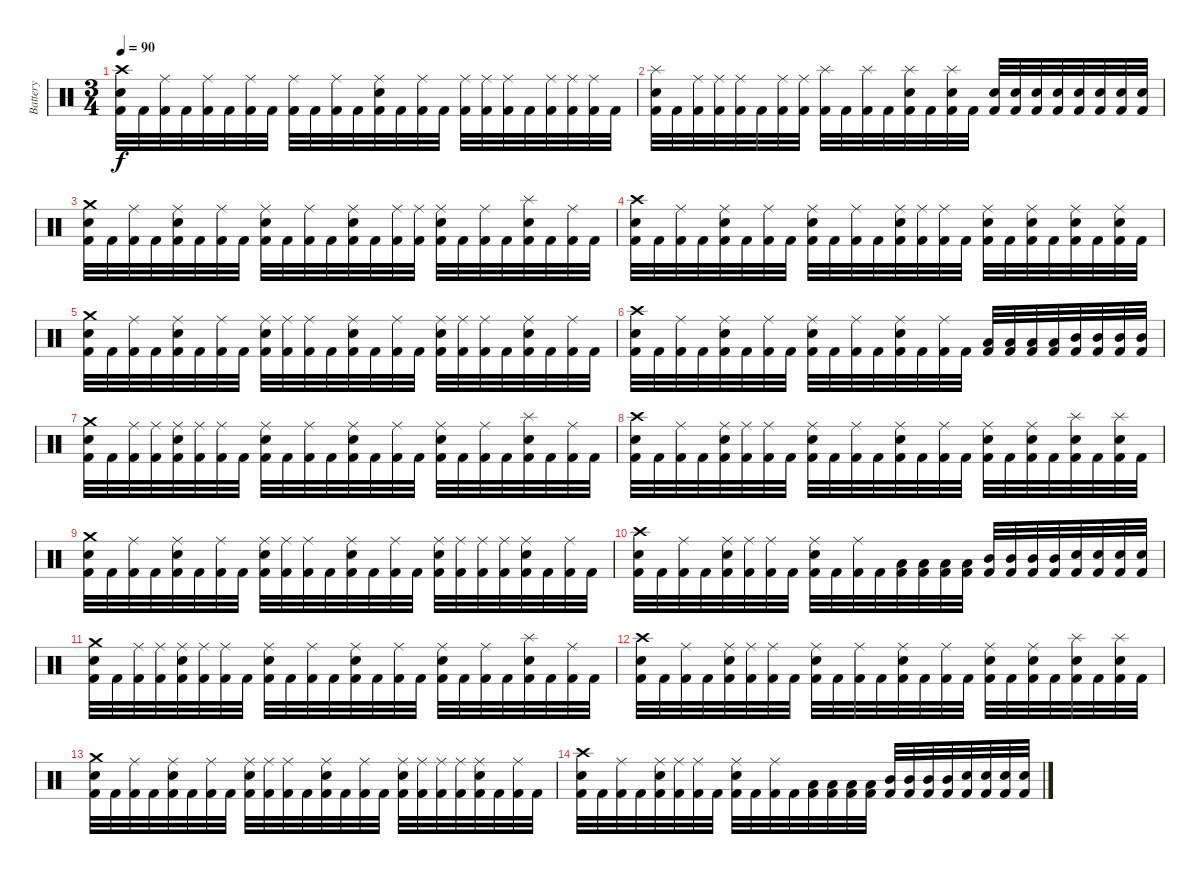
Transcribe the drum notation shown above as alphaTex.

\track ("Battery" "Battery") {instrument percussion}
\staff {score}
\articulation defaults
\ts (3 4)
\tempo 90
\clef neutral
\ks c
("Kick (hit) 2" "Snare (hit) 2" "Crash high (hit)").32{dy f} "Kick (hit) 2".32 ("Kick (hit) 2" "Ride (middle)").32 "Kick (hit) 2".32 ("Kick (hit) 2" "Ride (middle)").32 "Kick (hit) 2".32 ("Kick (hit) 2" "Ride (middle)").32 "Kick (hit) 2".32 ("Kick (hit) 2" "Ride (middle)").32 "Kick (hit) 2".32 ("Kick (hit) 2" "Ride (middle)").32 "Kick (hit) 2".32 ("Kick (hit) 2" "Snare (hit) 2" "Ride (middle)").32 "Kick (hit) 2".32 ("Kick (hit) 2" "Ride (middle)").32 "Kick (hit) 2".32 ("Kick (hit) 2" "Ride (middle)").32 ("Kick (hit) 2" "Ride (middle)").32 ("Kick (hit) 2" "Ride (middle)").32 "Kick (hit) 2".32 ("Kick (hit) 2" "Ride (middle)").32 ("Kick (hit) 2" "Ride (middle)").32 ("Kick (hit) 2" "Ride (middle)").32 "Kick (hit) 2".32 |
("Kick (hit) 2" "Snare (hit) 2" "Splash (hit)").32 "Kick (hit) 2".32 ("Kick (hit) 2" "Ride (middle)").32 ("Kick (hit) 2" "Ride (middle)").32 ("Kick (hit) 2" "Ride (middle)").32 "Kick (hit) 2".32 ("Kick (hit) 2" "Ride (middle)").32 ("Kick (hit) 2" "Ride (middle)").32 ("Kick (hit) 2" "Splash (hit)").32 "Kick (hit) 2".32 ("Kick (hit) 2" "Splash (hit)").32 "Kick (hit) 2".32 ("Kick (hit) 2" "Snare (hit) 2" "Splash (hit)").32 "Kick (hit) 2".32 ("Kick (hit) 2" "Snare (hit) 2" "Splash (hit)").32 "Kick (hit) 2".32 ("Kick (hit) 2" "Snare (hit) 2").32 ("Kick (hit) 2" "Snare (hit) 2").32 ("Kick (hit) 2" "Snare (hit) 2").32 ("Kick (hit) 2" "Snare (hit) 2").32 ("Kick (hit) 2" "Snare (hit) 2").32 ("Kick (hit) 2" "Snare (hit) 2").32 ("Kick (hit) 2" "Snare (hit) 2").32 ("Kick (hit) 2" "Snare (hit) 2").32 |
("Kick (hit) 2" "Snare (hit) 2" "Crash medium (hit)").32 "Kick (hit) 2".32 ("Kick (hit) 2" "Ride (middle)").32 "Kick (hit) 2".32 ("Kick (hit) 2" "Snare (hit) 2" "Ride (middle)").32 "Kick (hit) 2".32 ("Kick (hit) 2" "Ride (middle)").32 "Kick (hit) 2".32 ("Kick (hit) 2" "Snare (hit) 2" "Ride (middle)").32 "Kick (hit) 2".32 ("Kick (hit) 2" "Ride (middle)").32 "Kick (hit) 2".32 ("Kick (hit) 2" "Snare (hit) 2" "Ride (middle)").32 "Kick (hit) 2".32 ("Kick (hit) 2" "Ride (middle)").32 ("Kick (hit) 2" "Ride (middle)").32 ("Kick (hit) 2" "Snare (hit) 2" "Ride (middle)").32 "Kick (hit) 2".32 ("Kick (hit) 2" "Ride (middle)").32 "Kick (hit) 2".32 ("Kick (hit) 2" "Snare (hit) 2" "Splash (hit)").32 "Kick (hit) 2".32 ("Kick (hit) 2" "Ride (middle)").32 "Kick (hit) 2".32 |
("Kick (hit) 2" "Snare (hit) 2" "Crash high (hit)").32 "Kick (hit) 2".32 ("Kick (hit) 2" "Ride (middle)").32 "Kick (hit) 2".32 ("Kick (hit) 2" "Snare (hit) 2" "Ride (middle)").32 "Kick (hit) 2".32 ("Kick (hit) 2" "Ride (middle)").32 "Kick (hit) 2".32 ("Kick (hit) 2" "Snare (hit) 2" "Ride (middle)").32 "Kick (hit) 2".32 ("Kick (hit) 2" "Ride (middle)").32 "Kick (hit) 2".32 ("Kick (hit) 2" "Snare (hit) 2" "Ride (middle)").32 ("Kick (hit) 2" "Ride (middle)").32 ("Kick (hit) 2" "Ride (middle)").32 "Kick (hit) 2".32 ("Kick (hit) 2" "Snare (hit) 2" "Ride (middle)").32 "Kick (hit) 2".32 ("Kick (hit) 2" "Snare (hit) 2" "Ride (middle)").32 "Kick (hit) 2".32 ("Kick (hit) 2" "Snare (hit) 2" "Ride (middle)").32 "Kick (hit) 2".32 ("Kick (hit) 2" "Snare (hit) 2" "Ride (middle)").32 "Kick (hit) 2".32 |
("Kick (hit) 2" "Snare (hit) 2" "Crash medium (hit)").32 "Kick (hit) 2".32 ("Kick (hit) 2" "Ride (middle)").32 "Kick (hit) 2".32 ("Kick (hit) 2" "Snare (hit) 2" "Ride (middle)").32 "Kick (hit) 2".32 ("Kick (hit) 2" "Ride (middle)").32 "Kick (hit) 2".32 ("Kick (hit) 2" "Snare (hit) 2" "Ride (middle)").32 ("Kick (hit) 2" "Ride (middle)").32 ("Kick (hit) 2" "Ride (middle)").32 "Kick (hit) 2".32 ("Kick (hit) 2" "Snare (hit) 2" "Ride (middle)").32 "Kick (hit) 2".32 ("Kick (hit) 2" "Ride (middle)").32 "Kick (hit) 2".32 ("Kick (hit) 2" "Snare (hit) 2" "Ride (middle)").32 ("Kick (hit) 2" "Ride (middle)").32 ("Kick (hit) 2" "Ride (middle)").32 "Kick (hit) 2".32 ("Kick (hit) 2" "Snare (hit) 2" "Ride (middle)").32 "Kick (hit) 2".32 ("Kick (hit) 2" "Ride (middle)").32 "Kick (hit) 2".32 |
("Kick (hit) 2" "Snare (hit) 2" "Crash high (hit)").32 "Kick (hit) 2".32 ("Kick (hit) 2" "Ride (middle)").32 "Kick (hit) 2".32 ("Kick (hit) 2" "Snare (hit) 2" "Ride (middle)").32 "Kick (hit) 2".32 ("Kick (hit) 2" "Ride (middle)").32 "Kick (hit) 2".32 ("Kick (hit) 2" "Snare (hit) 2" "Ride (middle)").32 "Kick (hit) 2".32 ("Kick (hit) 2" "Ride (middle)").32 "Kick (hit) 2".32 ("Kick (hit) 2" "Snare (hit) 2" "Ride (middle)").32 "Kick (hit) 2".32 ("Kick (hit) 2" "Ride (middle)").32 "Kick (hit) 2".32 ("Kick (hit) 2" "Low Tom (hit)").32 ("Kick (hit) 2" "Low Tom (hit)").32 ("Kick (hit) 2" "Low Tom (hit)").32 ("Kick (hit) 2" "Low Tom (hit)").32 ("Kick (hit) 2" "Mid Tom (hit)").32 ("Kick (hit) 2" "Mid Tom (hit)").32 ("Kick (hit) 2" "Mid Tom (hit)").32 ("Kick (hit) 2" "Mid Tom (hit)").32 |
("Kick (hit) 2" "Snare (hit) 2" "Crash medium (hit)").32{volume 7} "Kick (hit) 2".32 ("Kick (hit) 2" "Ride (middle)").32 ("Kick (hit) 2" "Ride (middle)").32 ("Kick (hit) 2" "Snare (hit) 2" "Ride (middle)").32 ("Kick (hit) 2" "Ride (middle)").32 ("Kick (hit) 2" "Ride (middle)").32 "Kick (hit) 2".32 ("Kick (hit) 2" "Snare (hit) 2" "Ride (middle)").32 "Kick (hit) 2".32 ("Kick (hit) 2" "Ride (middle)").32 "Kick (hit) 2".32 ("Kick (hit) 2" "Snare (hit) 2" "Ride (middle)").32 "Kick (hit) 2".32 ("Kick (hit) 2" "Ride (middle)").32 "Kick (hit) 2".32 ("Kick (hit) 2" "Snare (hit) 2" "Ride (middle)").32 "Kick (hit) 2".32 ("Kick (hit) 2" "Ride (middle)").32 "Kick (hit) 2".32 ("Kick (hit) 2" "Snare (hit) 2" "Splash (hit)").32 "Kick (hit) 2".32 ("Kick (hit) 2" "Ride (middle)").32 "Kick (hit) 2".32 |
("Kick (hit) 2" "Snare (hit) 2" "Crash high (hit)").32 "Kick (hit) 2".32 ("Kick (hit) 2" "Ride (middle)").32 "Kick (hit) 2".32 ("Kick (hit) 2" "Snare (hit) 2" "Ride (middle)").32 ("Kick (hit) 2" "Ride (middle)").32 ("Kick (hit) 2" "Ride (middle)").32 "Kick (hit) 2".32 ("Kick (hit) 2" "Snare (hit) 2" "Ride (middle)").32 "Kick (hit) 2".32 ("Kick (hit) 2" "Ride (middle)").32 "Kick (hit) 2".32 ("Kick (hit) 2" "Snare (hit) 2" "Ride (middle)").32 "Kick (hit) 2".32 ("Kick (hit) 2" "Ride (middle)").32 "Kick (hit) 2".32 ("Kick (hit) 2" "Snare (hit) 2" "Ride (middle)").32 "Kick (hit) 2".32 ("Kick (hit) 2" "Snare (hit) 2" "Ride (middle)").32 "Kick (hit) 2".32 ("Kick (hit) 2" "Snare (hit) 2" "Splash (hit)").32 "Kick (hit) 2".32 ("Kick (hit) 2" "Snare (hit) 2" "Splash (hit)").32 "Kick (hit) 2".32 |
("Kick (hit) 2" "Snare (hit) 2" "Crash medium (hit)").32 "Kick (hit) 2".32 ("Kick (hit) 2" "Ride (middle)").32 "Kick (hit) 2".32 ("Kick (hit) 2" "Snare (hit) 2" "Ride (middle)").32 "Kick (hit) 2".32 ("Kick (hit) 2" "Ride (middle)").32 "Kick (hit) 2".32 ("Kick (hit) 2" "Snare (hit) 2" "Ride (middle)").32 ("Kick (hit) 2" "Ride (middle)").32 ("Kick (hit) 2" "Ride (middle)").32 "Kick (hit) 2".32 ("Kick (hit) 2" "Snare (hit) 2" "Ride (middle)").32 "Kick (hit) 2".32 ("Kick (hit) 2" "Ride (middle)").32 "Kick (hit) 2".32 ("Kick (hit) 2" "Snare (hit) 2" "Ride (middle)").32 ("Kick (hit) 2" "Ride (middle)").32 ("Kick (hit) 2" "Ride (middle)").32 ("Kick (hit) 2" "Ride (middle)").32 ("Kick (hit) 2" "Snare (hit) 2" "Ride (middle)").32 "Kick (hit) 2".32 ("Kick (hit) 2" "Ride (middle)").32 "Kick (hit) 2".32 |
("Kick (hit) 2" "Snare (hit) 2" "Crash high (hit)").32 "Kick (hit) 2".32 ("Kick (hit) 2" "Ride (middle)").32 "Kick (hit) 2".32 ("Kick (hit) 2" "Snare (hit) 2" "Ride (middle)").32 ("Kick (hit) 2" "Ride (middle)").32 ("Kick (hit) 2" "Ride (middle)").32 "Kick (hit) 2".32 ("Kick (hit) 2" "Snare (hit) 2" "Ride (middle)").32 "Kick (hit) 2".32 ("Kick (hit) 2" "Ride (middle)").32 "Kick (hit) 2".32 ("Kick (hit) 2" "Low Tom (hit)").32 ("Kick (hit) 2" "Low Tom (hit)").32 ("Kick (hit) 2" "Low Tom (hit)").32 ("Kick (hit) 2" "Low Tom (hit)").32 ("Kick (hit) 2" "Mid Tom (hit)").32 ("Kick (hit) 2" "Mid Tom (hit)").32 ("Kick (hit) 2" "Mid Tom (hit)").32 ("Kick (hit) 2" "Mid Tom (hit)").32 ("Kick (hit) 2" "Snare (hit) 2").32 ("Kick (hit) 2" "Snare (hit) 2").32 ("Kick (hit) 2" "Snare (hit) 2").32 ("Kick (hit) 2" "Snare (hit) 2").32 |
("Kick (hit) 2" "Snare (hit) 2" "Crash medium (hit)").32{volume 0} "Kick (hit) 2".32 ("Kick (hit) 2" "Ride (middle)").32 ("Kick (hit) 2" "Ride (middle)").32 ("Kick (hit) 2" "Snare (hit) 2" "Ride (middle)").32 ("Kick (hit) 2" "Ride (middle)").32 ("Kick (hit) 2" "Ride (middle)").32 "Kick (hit) 2".32 ("Kick (hit) 2" "Snare (hit) 2" "Ride (middle)").32 "Kick (hit) 2".32 ("Kick (hit) 2" "Ride (middle)").32 "Kick (hit) 2".32 ("Kick (hit) 2" "Snare (hit) 2" "Ride (middle)").32 "Kick (hit) 2".32 ("Kick (hit) 2" "Ride (middle)").32 "Kick (hit) 2".32 ("Kick (hit) 2" "Snare (hit) 2" "Ride (middle)").32 "Kick (hit) 2".32 ("Kick (hit) 2" "Ride (middle)").32 "Kick (hit) 2".32 ("Kick (hit) 2" "Snare (hit) 2" "Splash (hit)").32 "Kick (hit) 2".32 ("Kick (hit) 2" "Ride (middle)").32 "Kick (hit) 2".32 |
("Kick (hit) 2" "Snare (hit) 2" "Crash high (hit)").32 "Kick (hit) 2".32 ("Kick (hit) 2" "Ride (middle)").32 "Kick (hit) 2".32 ("Kick (hit) 2" "Snare (hit) 2" "Ride (middle)").32 ("Kick (hit) 2" "Ride (middle)").32 ("Kick (hit) 2" "Ride (middle)").32 "Kick (hit) 2".32 ("Kick (hit) 2" "Snare (hit) 2" "Ride (middle)").32 "Kick (hit) 2".32 ("Kick (hit) 2" "Ride (middle)").32 "Kick (hit) 2".32 ("Kick (hit) 2" "Snare (hit) 2" "Ride (middle)").32 "Kick (hit) 2".32 ("Kick (hit) 2" "Ride (middle)").32 "Kick (hit) 2".32 ("Kick (hit) 2" "Snare (hit) 2" "Ride (middle)").32 "Kick (hit) 2".32 ("Kick (hit) 2" "Snare (hit) 2" "Ride (middle)").32 "Kick (hit) 2".32 ("Kick (hit) 2" "Snare (hit) 2" "Splash (hit)").32 "Kick (hit) 2".32 ("Kick (hit) 2" "Snare (hit) 2" "Splash (hit)").32 "Kick (hit) 2".32 |
("Kick (hit) 2" "Snare (hit) 2" "Crash medium (hit)").32 "Kick (hit) 2".32 ("Kick (hit) 2" "Ride (middle)").32 "Kick (hit) 2".32 ("Kick (hit) 2" "Snare (hit) 2" "Ride (middle)").32 "Kick (hit) 2".32 ("Kick (hit) 2" "Ride (middle)").32 "Kick (hit) 2".32 ("Kick (hit) 2" "Snare (hit) 2" "Ride (middle)").32 ("Kick (hit) 2" "Ride (middle)").32 ("Kick (hit) 2" "Ride (middle)").32 "Kick (hit) 2".32 ("Kick (hit) 2" "Snare (hit) 2" "Ride (middle)").32 "Kick (hit) 2".32 ("Kick (hit) 2" "Ride (middle)").32 "Kick (hit) 2".32 ("Kick (hit) 2" "Snare (hit) 2" "Ride (middle)").32 ("Kick (hit) 2" "Ride (middle)").32 ("Kick (hit) 2" "Ride (middle)").32 ("Kick (hit) 2" "Ride (middle)").32 ("Kick (hit) 2" "Snare (hit) 2" "Ride (middle)").32 "Kick (hit) 2".32 ("Kick (hit) 2" "Ride (middle)").32 "Kick (hit) 2".32 |
("Kick (hit) 2" "Snare (hit) 2" "Crash high (hit)").32 "Kick (hit) 2".32 ("Kick (hit) 2" "Ride (middle)").32 "Kick (hit) 2".32 ("Kick (hit) 2" "Snare (hit) 2" "Ride (middle)").32 ("Kick (hit) 2" "Ride (middle)").32 ("Kick (hit) 2" "Ride (middle)").32 "Kick (hit) 2".32 ("Kick (hit) 2" "Snare (hit) 2" "Ride (middle)").32 "Kick (hit) 2".32 ("Kick (hit) 2" "Ride (middle)").32 "Kick (hit) 2".32 ("Kick (hit) 2" "Low Tom (hit)").32 ("Kick (hit) 2" "Low Tom (hit)").32 ("Kick (hit) 2" "Low Tom (hit)").32 ("Kick (hit) 2" "Low Tom (hit)").32 ("Kick (hit) 2" "Mid Tom (hit)").32 ("Kick (hit) 2" "Mid Tom (hit)").32 ("Kick (hit) 2" "Mid Tom (hit)").32 ("Kick (hit) 2" "Mid Tom (hit)").32 ("Kick (hit) 2" "Snare (hit) 2").32 ("Kick (hit) 2" "Snare (hit) 2").32 ("Kick (hit) 2" "Snare (hit) 2").32 ("Kick (hit) 2" "Snare (hit) 2").32
